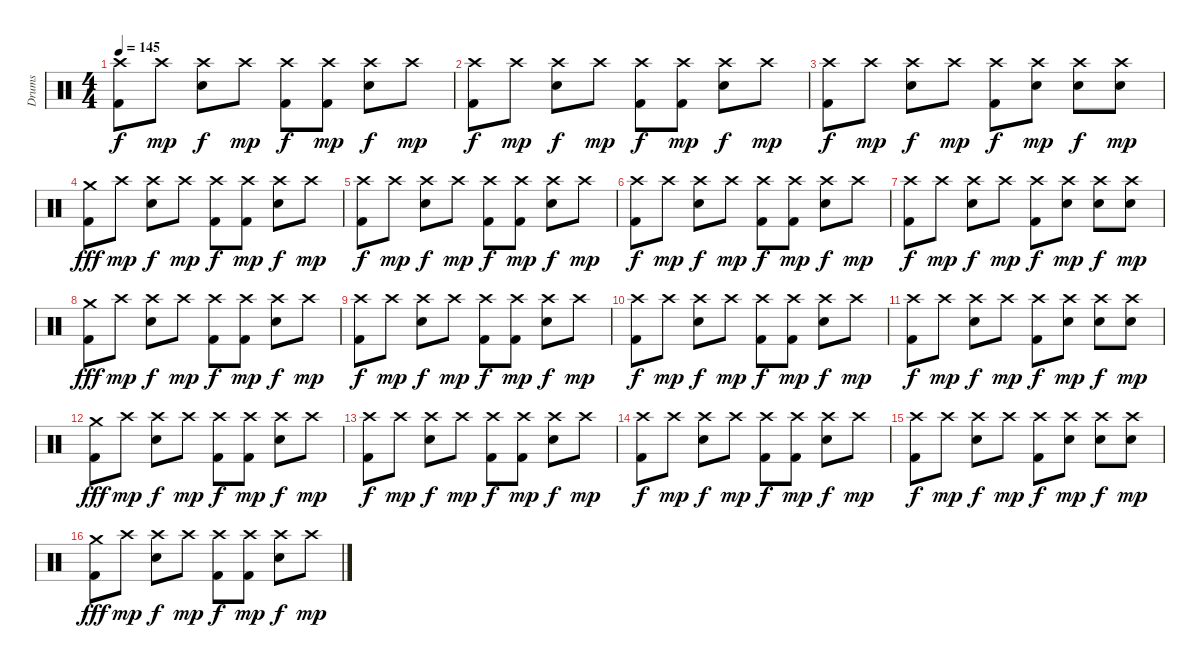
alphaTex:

\track ("Drums" "Drums") {instrument percussion}
\staff {score}
\articulation defaults
\ts (4 4)
\tempo 145
\clef neutral
\ks c
("Crash high (hit)" "Kick (hit) 2").8{dy f} "Crash high (hit)".8{dy mp} ("Crash high (hit)" "Snare (hit) 2").8{dy f} "Crash high (hit)".8{dy mp} ("Crash high (hit)" "Kick (hit) 2").8{dy f} ("Crash high (hit)" "Kick (hit) 2").8{dy mp} ("Crash high (hit)" "Snare (hit) 2").8{dy f} "Crash high (hit)".8{dy mp} |
("Crash high (hit)" "Kick (hit) 2").8{dy f} "Crash high (hit)".8{dy mp} ("Crash high (hit)" "Snare (hit) 2").8{dy f} "Crash high (hit)".8{dy mp} ("Crash high (hit)" "Kick (hit) 2").8{dy f} ("Crash high (hit)" "Kick (hit) 2").8{dy mp} ("Crash high (hit)" "Snare (hit) 2").8{dy f} "Crash high (hit)".8{dy mp} |
("Crash high (hit)" "Kick (hit) 2").8{dy f} "Crash high (hit)".8{dy mp} ("Crash high (hit)" "Snare (hit) 2").8{dy f} "Crash high (hit)".8{dy mp} ("Crash high (hit)" "Kick (hit) 2").8{dy f} ("Crash high (hit)" "Snare (hit) 2").8{dy mp} ("Crash high (hit)" "Snare (hit) 2").8{dy f} ("Crash high (hit)" "Snare (hit) 2").8{dy mp} |
("Crash medium (hit)" "Kick (hit) 2").8{dy fff} "Crash high (hit)".8{dy mp} ("Crash high (hit)" "Snare (hit) 2").8{dy f} "Crash high (hit)".8{dy mp} ("Crash high (hit)" "Kick (hit) 2").8{dy f} ("Crash high (hit)" "Kick (hit) 2").8{dy mp} ("Crash high (hit)" "Snare (hit) 2").8{dy f} "Crash high (hit)".8{dy mp} |
("Crash high (hit)" "Kick (hit) 2").8{dy f} "Crash high (hit)".8{dy mp} ("Crash high (hit)" "Snare (hit) 2").8{dy f} "Crash high (hit)".8{dy mp} ("Crash high (hit)" "Kick (hit) 2").8{dy f} ("Crash high (hit)" "Kick (hit) 2").8{dy mp} ("Crash high (hit)" "Snare (hit) 2").8{dy f} "Crash high (hit)".8{dy mp} |
("Crash high (hit)" "Kick (hit) 2").8{dy f} "Crash high (hit)".8{dy mp} ("Crash high (hit)" "Snare (hit) 2").8{dy f} "Crash high (hit)".8{dy mp} ("Crash high (hit)" "Kick (hit) 2").8{dy f} ("Crash high (hit)" "Kick (hit) 2").8{dy mp} ("Crash high (hit)" "Snare (hit) 2").8{dy f} "Crash high (hit)".8{dy mp} |
("Crash high (hit)" "Kick (hit) 2").8{dy f} "Crash high (hit)".8{dy mp} ("Crash high (hit)" "Snare (hit) 2").8{dy f} "Crash high (hit)".8{dy mp} ("Crash high (hit)" "Kick (hit) 2").8{dy f} ("Crash high (hit)" "Snare (hit) 2").8{dy mp} ("Crash high (hit)" "Snare (hit) 2").8{dy f} ("Crash high (hit)" "Snare (hit) 2").8{dy mp} |
("Crash medium (hit)" "Kick (hit) 2").8{dy fff} "Crash high (hit)".8{dy mp} ("Crash high (hit)" "Snare (hit) 2").8{dy f} "Crash high (hit)".8{dy mp} ("Crash high (hit)" "Kick (hit) 2").8{dy f} ("Crash high (hit)" "Kick (hit) 2").8{dy mp} ("Crash high (hit)" "Snare (hit) 2").8{dy f} "Crash high (hit)".8{dy mp} |
("Crash high (hit)" "Kick (hit) 2").8{dy f} "Crash high (hit)".8{dy mp} ("Crash high (hit)" "Snare (hit) 2").8{dy f} "Crash high (hit)".8{dy mp} ("Crash high (hit)" "Kick (hit) 2").8{dy f} ("Crash high (hit)" "Kick (hit) 2").8{dy mp} ("Crash high (hit)" "Snare (hit) 2").8{dy f} "Crash high (hit)".8{dy mp} |
("Crash high (hit)" "Kick (hit) 2").8{dy f} "Crash high (hit)".8{dy mp} ("Crash high (hit)" "Snare (hit) 2").8{dy f} "Crash high (hit)".8{dy mp} ("Crash high (hit)" "Kick (hit) 2").8{dy f} ("Crash high (hit)" "Kick (hit) 2").8{dy mp} ("Crash high (hit)" "Snare (hit) 2").8{dy f} "Crash high (hit)".8{dy mp} |
("Crash high (hit)" "Kick (hit) 2").8{dy f} "Crash high (hit)".8{dy mp} ("Crash high (hit)" "Snare (hit) 2").8{dy f} "Crash high (hit)".8{dy mp} ("Crash high (hit)" "Kick (hit) 2").8{dy f} ("Crash high (hit)" "Snare (hit) 2").8{dy mp} ("Crash high (hit)" "Snare (hit) 2").8{dy f} ("Crash high (hit)" "Snare (hit) 2").8{dy mp} |
("Crash medium (hit)" "Kick (hit) 2").8{dy fff} "Crash high (hit)".8{dy mp} ("Crash high (hit)" "Snare (hit) 2").8{dy f} "Crash high (hit)".8{dy mp} ("Crash high (hit)" "Kick (hit) 2").8{dy f} ("Crash high (hit)" "Kick (hit) 2").8{dy mp} ("Crash high (hit)" "Snare (hit) 2").8{dy f} "Crash high (hit)".8{dy mp} |
("Crash high (hit)" "Kick (hit) 2").8{dy f} "Crash high (hit)".8{dy mp} ("Crash high (hit)" "Snare (hit) 2").8{dy f} "Crash high (hit)".8{dy mp} ("Crash high (hit)" "Kick (hit) 2").8{dy f} ("Crash high (hit)" "Kick (hit) 2").8{dy mp} ("Crash high (hit)" "Snare (hit) 2").8{dy f} "Crash high (hit)".8{dy mp} |
("Crash high (hit)" "Kick (hit) 2").8{dy f} "Crash high (hit)".8{dy mp} ("Crash high (hit)" "Snare (hit) 2").8{dy f} "Crash high (hit)".8{dy mp} ("Crash high (hit)" "Kick (hit) 2").8{dy f} ("Crash high (hit)" "Kick (hit) 2").8{dy mp} ("Crash high (hit)" "Snare (hit) 2").8{dy f} "Crash high (hit)".8{dy mp} |
("Crash high (hit)" "Kick (hit) 2").8{dy f} "Crash high (hit)".8{dy mp} ("Crash high (hit)" "Snare (hit) 2").8{dy f} "Crash high (hit)".8{dy mp} ("Crash high (hit)" "Kick (hit) 2").8{dy f} ("Crash high (hit)" "Snare (hit) 2").8{dy mp} ("Crash high (hit)" "Snare (hit) 2").8{dy f} ("Crash high (hit)" "Snare (hit) 2").8{dy mp} |
("Crash medium (hit)" "Kick (hit) 2").8{dy fff} "Crash high (hit)".8{dy mp} ("Crash high (hit)" "Snare (hit) 2").8{dy f} "Crash high (hit)".8{dy mp} ("Crash high (hit)" "Kick (hit) 2").8{dy f} ("Crash high (hit)" "Kick (hit) 2").8{dy mp} ("Crash high (hit)" "Snare (hit) 2").8{dy f} "Crash high (hit)".8{dy mp}
